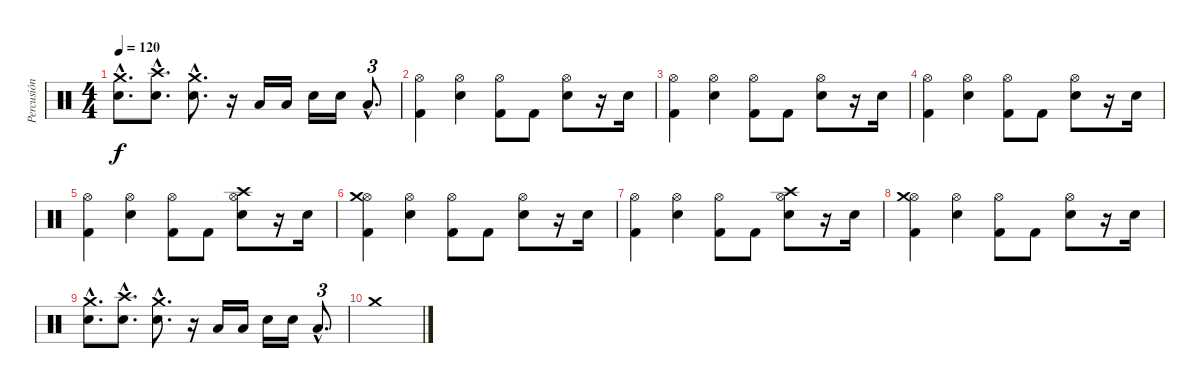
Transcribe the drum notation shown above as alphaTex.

\track ("Percusión" "Percusión") {instrument percussion}
\staff {score}
\articulation defaults
\ts (4 4)
\tempo 120
\clef neutral
\ks c
("Crash medium (hit)"{hac} "Electric Snare (hit)"{hac}).8{d dy f} ("Crash high (hit)"{hac} "Electric Snare (hit)"{hac}).8{d} ("Crash medium (hit)"{hac} "Electric Snare (hit)"{hac}).8{d} r.16 "Low Floor Tom (hit)".16 "Low Floor Tom (hit)".16 "Electric Snare (hit)".16 "Electric Snare (hit)".16 "Low Tom (hit)"{hac}.8{d tu (3 2)} |
("Hi-Hat (open)" "Kick (hit) 2").4 ("Hi-Hat (open)" "Electric Snare (hit)").4 ("Hi-Hat (open)" "Kick (hit) 2").8 "Kick (hit) 2".8 ("Hi-Hat (open)" "Electric Snare (hit)").8 r.16 "Electric Snare (hit)".16 |
("Hi-Hat (open)" "Kick (hit) 2").4 ("Hi-Hat (open)" "Electric Snare (hit)").4 ("Hi-Hat (open)" "Kick (hit) 2").8 "Kick (hit) 2".8 ("Hi-Hat (open)" "Electric Snare (hit)").8 r.16 "Electric Snare (hit)".16 |
("Hi-Hat (open)" "Kick (hit) 2").4 ("Hi-Hat (open)" "Electric Snare (hit)").4 ("Hi-Hat (open)" "Kick (hit) 2").8 "Kick (hit) 2".8 ("Hi-Hat (open)" "Electric Snare (hit)").8 r.16 "Electric Snare (hit)".16 |
("Hi-Hat (open)" "Kick (hit) 2").4 ("Hi-Hat (open)" "Electric Snare (hit)").4 ("Hi-Hat (open)" "Kick (hit) 2").8 "Kick (hit) 2".8 ("Hi-Hat (open)" "Electric Snare (hit)" "Crash high (hit)").8 r.16 "Electric Snare (hit)".16 |
("Hi-Hat (open)" "Kick (hit) 2" "Crash medium (hit)").4{volume 0} ("Hi-Hat (open)" "Electric Snare (hit)").4 ("Hi-Hat (open)" "Kick (hit) 2").8 "Kick (hit) 2".8 ("Hi-Hat (open)" "Electric Snare (hit)").8 r.16 "Electric Snare (hit)".16 |
("Hi-Hat (open)" "Kick (hit) 2").4 ("Hi-Hat (open)" "Electric Snare (hit)").4 ("Hi-Hat (open)" "Kick (hit) 2").8 "Kick (hit) 2".8 ("Hi-Hat (open)" "Electric Snare (hit)" "Crash high (hit)").8 r.16 "Electric Snare (hit)".16 |
("Hi-Hat (open)" "Kick (hit) 2" "Crash medium (hit)").4 ("Hi-Hat (open)" "Electric Snare (hit)").4 ("Hi-Hat (open)" "Kick (hit) 2").8 "Kick (hit) 2".8 ("Hi-Hat (open)" "Electric Snare (hit)").8 r.16 "Electric Snare (hit)".16 |
("Crash medium (hit)"{hac} "Electric Snare (hit)"{hac}).8{d} ("Crash high (hit)"{hac} "Electric Snare (hit)"{hac}).8{d} ("Crash medium (hit)"{hac} "Electric Snare (hit)"{hac}).8{d} r.16 "Low Floor Tom (hit)".16 "Low Floor Tom (hit)".16 "Electric Snare (hit)".16 "Electric Snare (hit)".16 "Low Tom (hit)"{hac}.8{d tu (3 2)} |
"Crash medium (hit)".1
